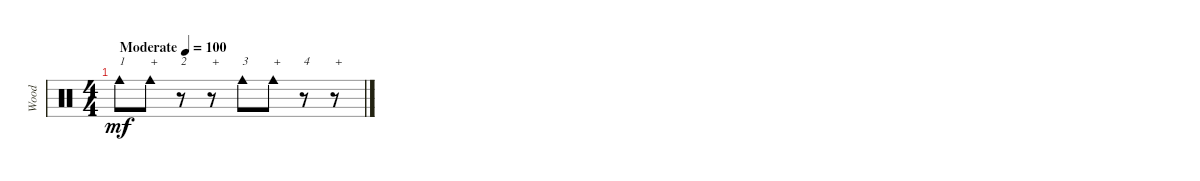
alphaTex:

\track ("Wood" "Wood") {instrument percussion}
\staff {score}
\articulation defaults
\ts (4 4)
\tempo (100 "Moderate")
\clef neutral
\ks c "Cowbell medium (hit)".8{txt "1" dy mf} "Cowbell medium (hit)".8{txt "+"}
r.8{txt "2"} r.8{txt "+"} "Cowbell medium (hit)".8{txt "3"} "Cowbell medium (hit)".8{txt "+"} r.8{txt "4"} r.8{txt "+"}
